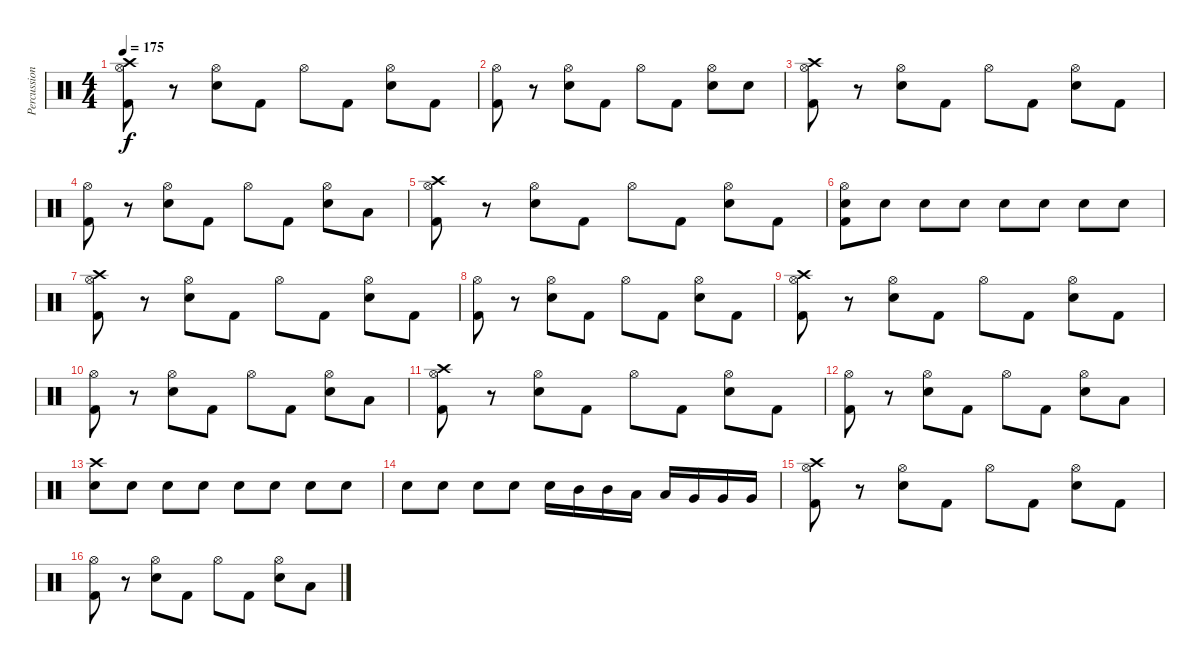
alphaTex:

\track ("Percussion" "Percussion") {instrument percussion}
\staff {score}
\articulation defaults
\ts (4 4)
\tempo 175
\clef neutral
\ks c
("Crash high (hit)" "Hi-Hat (open)" "Kick (hit) 2").8{dy f} r.8 ("Hi-Hat (open)" "Electric Snare (hit)").8 "Kick (hit) 2".8 "Hi-Hat (open)".8 "Kick (hit) 2".8 ("Hi-Hat (open)" "Electric Snare (hit)").8 "Kick (hit) 2".8 |
("Hi-Hat (open)" "Kick (hit) 2").8 r.8 ("Hi-Hat (open)" "Electric Snare (hit)").8 "Kick (hit) 2".8 "Hi-Hat (open)".8 "Kick (hit) 2".8 ("Hi-Hat (open)" "Electric Snare (hit)").8 "Electric Snare (hit)".8 |
("Crash high (hit)" "Hi-Hat (open)" "Kick (hit) 2").8 r.8 ("Hi-Hat (open)" "Electric Snare (hit)").8 "Kick (hit) 2".8 "Hi-Hat (open)".8 "Kick (hit) 2".8 ("Hi-Hat (open)" "Electric Snare (hit)").8 "Kick (hit) 2".8 |
("Hi-Hat (open)" "Kick (hit) 2").8 r.8 ("Hi-Hat (open)" "Electric Snare (hit)").8 "Kick (hit) 2".8 "Hi-Hat (open)".8 "Kick (hit) 2".8 ("Hi-Hat (open)" "Electric Snare (hit)").8 "Low Tom (hit)".8 |
("Crash high (hit)" "Hi-Hat (open)" "Kick (hit) 2").8 r.8 ("Hi-Hat (open)" "Electric Snare (hit)").8 "Kick (hit) 2".8 "Hi-Hat (open)".8 "Kick (hit) 2".8 ("Hi-Hat (open)" "Electric Snare (hit)").8 "Kick (hit) 2".8 |
("Hi-Hat (open)" "Electric Snare (hit)" "Kick (hit) 2").8 "Electric Snare (hit)".8 "Electric Snare (hit)".8 "Electric Snare (hit)".8 "Electric Snare (hit)".8 "Electric Snare (hit)".8 "Electric Snare (hit)".8 "Electric Snare (hit)".8 |
("Crash high (hit)" "Hi-Hat (open)" "Kick (hit) 2").8 r.8 ("Hi-Hat (open)" "Electric Snare (hit)").8 "Kick (hit) 2".8 "Hi-Hat (open)".8 "Kick (hit) 2".8 ("Hi-Hat (open)" "Electric Snare (hit)").8 "Kick (hit) 2".8 |
("Hi-Hat (open)" "Kick (hit) 2").8 r.8 ("Hi-Hat (open)" "Electric Snare (hit)").8 "Kick (hit) 2".8 "Hi-Hat (open)".8 "Kick (hit) 2".8 ("Hi-Hat (open)" "Electric Snare (hit)").8 "Kick (hit) 2".8 |
("Crash high (hit)" "Hi-Hat (open)" "Kick (hit) 2").8 r.8 ("Hi-Hat (open)" "Electric Snare (hit)").8 "Kick (hit) 2".8 "Hi-Hat (open)".8 "Kick (hit) 2".8 ("Hi-Hat (open)" "Electric Snare (hit)").8 "Kick (hit) 2".8 |
("Hi-Hat (open)" "Kick (hit) 2").8 r.8 ("Hi-Hat (open)" "Electric Snare (hit)").8 "Kick (hit) 2".8 "Hi-Hat (open)".8 "Kick (hit) 2".8 ("Hi-Hat (open)" "Electric Snare (hit)").8 "Low Tom (hit)".8 |
("Crash high (hit)" "Hi-Hat (open)" "Kick (hit) 2").8 r.8 ("Hi-Hat (open)" "Electric Snare (hit)").8 "Kick (hit) 2".8 "Hi-Hat (open)".8 "Kick (hit) 2".8 ("Hi-Hat (open)" "Electric Snare (hit)").8 "Kick (hit) 2".8 |
("Hi-Hat (open)" "Kick (hit) 2").8 r.8 ("Hi-Hat (open)" "Electric Snare (hit)").8 "Kick (hit) 2".8 "Hi-Hat (open)".8 "Kick (hit) 2".8 ("Hi-Hat (open)" "Electric Snare (hit)").8 "Low Tom (hit)".8 |
("Crash high (hit)" "Electric Snare (hit)").8 "Electric Snare (hit)".8 "Electric Snare (hit)".8 "Electric Snare (hit)".8 "Electric Snare (hit)".8 "Electric Snare (hit)".8 "Electric Snare (hit)".8 "Electric Snare (hit)".8 |
"Electric Snare (hit)".8 "Electric Snare (hit)".8 "Electric Snare (hit)".8 "Electric Snare (hit)".8 "Electric Snare (hit)".16 "Mid Tom (hit)".16 "Mid Tom (hit)".16 "Low Tom (hit)".16 "Low Tom (hit)".16 "Very Low Tom (hit)".16 "Very Low Tom (hit)".16 "Very Low Tom (hit)".16 |
("Crash high (hit)" "Hi-Hat (open)" "Kick (hit) 2").8 r.8 ("Hi-Hat (open)" "Electric Snare (hit)").8 "Kick (hit) 2".8 "Hi-Hat (open)".8 "Kick (hit) 2".8 ("Hi-Hat (open)" "Electric Snare (hit)").8 "Kick (hit) 2".8 |
("Hi-Hat (open)" "Kick (hit) 2").8 r.8 ("Hi-Hat (open)" "Electric Snare (hit)").8 "Kick (hit) 2".8 "Hi-Hat (open)".8 "Kick (hit) 2".8 ("Hi-Hat (open)" "Electric Snare (hit)").8 "Low Tom (hit)".8
